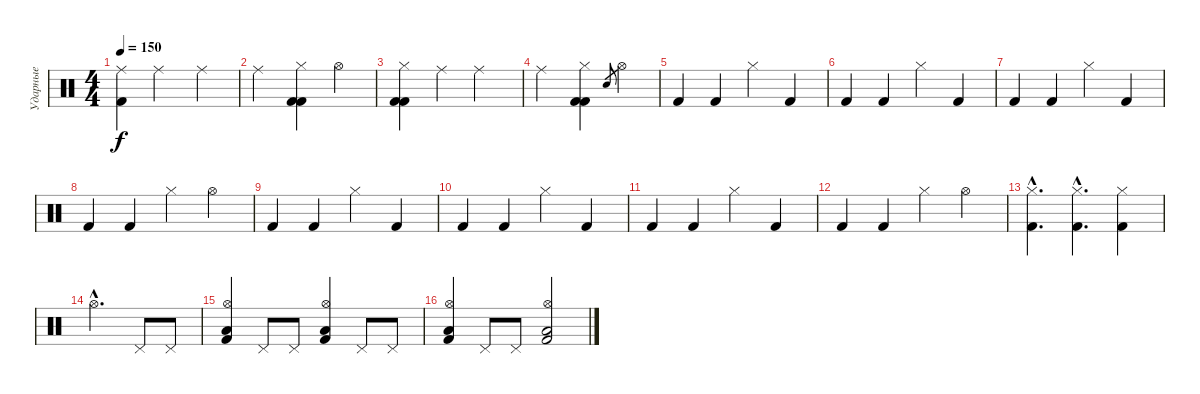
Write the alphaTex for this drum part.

\track ("Ударные" "Ударные") {instrument percussion}
\staff {score}
\articulation defaults
\ts (4 4)
\tempo 150
\clef neutral
\ks c
("Kick (hit) 2" "Ride (middle)").4{dy f} "Ride (middle)".2 "Ride (middle)".4 |
"Ride (middle)".2 ("Kick (hit) 2" "Kick (hit) 2" "Hi-Hat (closed)").4 "Hi-Hat (open)".4 |
("Hi-Hat (closed)" "Kick (hit) 2" "Kick (hit) 2").4 "Ride (middle)".4 "Ride (middle)".2 |
"Ride (middle)".2 ("Kick (hit) 2" "Kick (hit) 2" "Hi-Hat (closed)").4 "Snare (hit)".8{gr} "Hi-Hat (open)".4 |
"Kick (hit) 2".4 "Kick (hit) 2".4 "Hi-Hat (closed)".4 "Kick (hit) 2".4 |
"Kick (hit) 2".4 "Kick (hit) 2".4 "Hi-Hat (closed)".4 "Kick (hit) 2".4 |
"Kick (hit) 2".4 "Kick (hit) 2".4 "Hi-Hat (closed)".4 "Kick (hit) 2".4 |
"Kick (hit) 2".4 "Kick (hit) 2".4 "Hi-Hat (closed)".4 "Hi-Hat (open)".4 |
"Kick (hit) 2".4 "Kick (hit) 2".4 "Hi-Hat (closed)".4 "Kick (hit) 2".4 |
"Kick (hit) 2".4 "Kick (hit) 2".4 "Hi-Hat (closed)".4 "Kick (hit) 2".4 |
"Kick (hit) 2".4 "Kick (hit) 2".4 "Hi-Hat (closed)".4 "Kick (hit) 2".4 |
"Kick (hit) 2".4 "Kick (hit) 2".4 "Hi-Hat (closed)".4 "Hi-Hat (open)".4 |
("Hi-Hat (closed)"{hac} "Kick (hit) 2"{hac}).4{d} ("Kick (hit) 2"{hac} "Hi-Hat (closed)"{hac}).4{d} ("Hi-Hat (closed)" "Kick (hit) 2").4 |
"Hi-Hat (open)"{hac}.2{d} "Pedal Hi-Hat (hit)".8 "Pedal Hi-Hat (hit)".8 |
("Low Floor Tom (hit)" "Kick (hit) 2" "Hi-Hat (open)").4 "Pedal Hi-Hat (hit)".8 "Pedal Hi-Hat (hit)".8 ("Low Floor Tom (hit)" "Hi-Hat (open)" "Kick (hit) 2").4 "Pedal Hi-Hat (hit)".8 "Pedal Hi-Hat (hit)".8 |
("Low Floor Tom (hit)" "Kick (hit) 2" "Hi-Hat (open)").4 "Pedal Hi-Hat (hit)".8 "Pedal Hi-Hat (hit)".8 ("Low Floor Tom (hit)" "Kick (hit) 2" "Hi-Hat (open)").2
